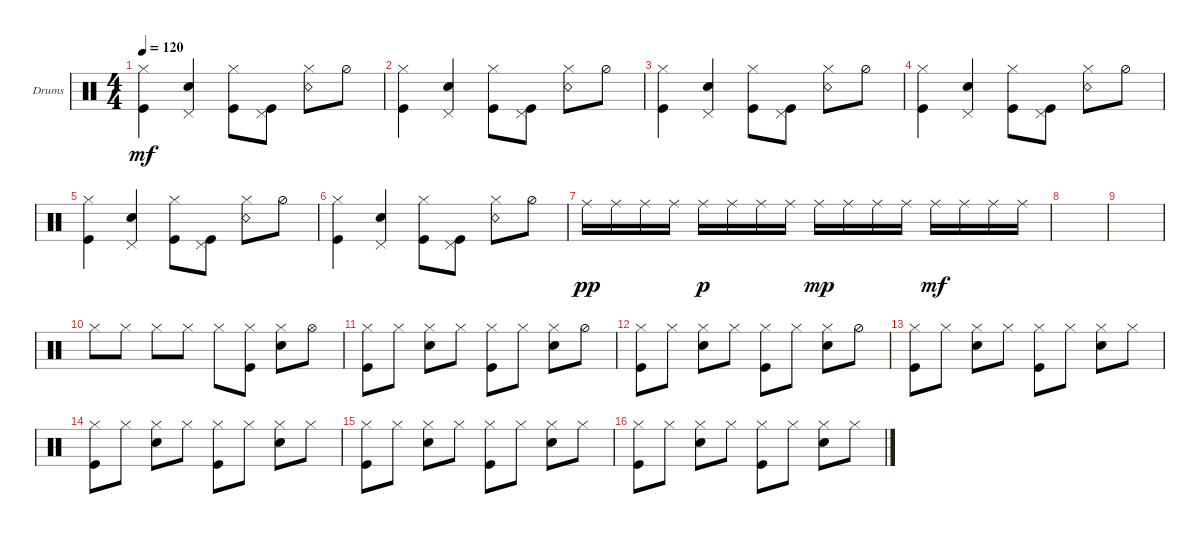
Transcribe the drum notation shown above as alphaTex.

\defaultSystemsLayout 4
\bracketExtendMode groupsimilarinstruments
\firstSystemTrackNameOrientation horizontal
\otherSystemsTrackNameOrientation horizontal
\track ("Drumkit" "Drums") {instrument percussion}
\staff {score}
\articulation defaults
\ts (4 4)
\tempo 120
\clef neutral
\ks c
("Kick (hit)" "Hi-Hat (closed)").4{dy mf} ("Snare (hit) 2" "Pedal Hi-Hat (hit)").4 ("Kick (hit)" "Hi-Hat (closed)").8 ("Pedal Hi-Hat (hit)" "Kick (hit)").8 ("Hi-Hat (closed)" "Snare (rim shot)").8 "Hi-Hat (half)".8 |
("Kick (hit)" "Hi-Hat (closed)").4 ("Snare (hit) 2" "Pedal Hi-Hat (hit)").4 ("Kick (hit)" "Hi-Hat (closed)").8 ("Pedal Hi-Hat (hit)" "Kick (hit)").8 ("Hi-Hat (closed)" "Snare (rim shot)").8 "Hi-Hat (half)".8 |
("Kick (hit)" "Hi-Hat (closed)").4 ("Snare (hit) 2" "Pedal Hi-Hat (hit)").4 ("Kick (hit)" "Hi-Hat (closed)").8 ("Pedal Hi-Hat (hit)" "Kick (hit)").8 ("Hi-Hat (closed)" "Snare (rim shot)").8 "Hi-Hat (half)".8 |
("Kick (hit)" "Hi-Hat (closed)").4 ("Snare (hit) 2" "Pedal Hi-Hat (hit)").4 ("Kick (hit)" "Hi-Hat (closed)").8 ("Pedal Hi-Hat (hit)" "Kick (hit)").8 ("Hi-Hat (closed)" "Snare (rim shot)").8 "Hi-Hat (half)".8 |
("Kick (hit)" "Hi-Hat (closed)").4 ("Snare (hit) 2" "Pedal Hi-Hat (hit)").4 ("Kick (hit)" "Hi-Hat (closed)").8 ("Pedal Hi-Hat (hit)" "Kick (hit)").8 ("Hi-Hat (closed)" "Snare (rim shot)").8 "Hi-Hat (half)".8 |
("Kick (hit)" "Hi-Hat (closed)").4 ("Snare (hit) 2" "Pedal Hi-Hat (hit)").4 ("Kick (hit)" "Hi-Hat (closed)").8 ("Pedal Hi-Hat (hit)" "Kick (hit)").8 ("Hi-Hat (closed)" "Snare (rim shot)").8 "Hi-Hat (half)".8 |
"Ride (middle)".16{dy pp} "Ride (middle)".16 "Ride (middle)".16 "Ride (middle)".16 "Ride (middle)".16{dy p} "Ride (middle)".16 "Ride (middle)".16 "Ride (middle)".16 "Ride (middle)".16{dy mp} "Ride (middle)".16 "Ride (middle)".16 "Ride (middle)".16 "Ride (middle)".16{dy mf} "Ride (middle)".16 "Ride (middle)".16 "Ride (middle)".16 |
|
|
"Hi-Hat (closed)".8 "Hi-Hat (closed)".8 "Hi-Hat (closed)".8 "Hi-Hat (closed)".8 "Hi-Hat (closed)".8 ("Hi-Hat (closed)" "Kick (hit)").8 ("Hi-Hat (closed)" "Snare (hit) 2").8 "Hi-Hat (open)".8 |
("Kick (hit)" "Hi-Hat (closed)").8 "Hi-Hat (closed)".8 ("Hi-Hat (closed)" "Snare (hit) 2").8 "Hi-Hat (closed)".8 ("Hi-Hat (closed)" "Kick (hit)").8 "Hi-Hat (closed)".8 ("Hi-Hat (closed)" "Snare (hit) 2").8 "Hi-Hat (half)".8 |
("Kick (hit)" "Hi-Hat (closed)").8 "Hi-Hat (closed)".8 ("Hi-Hat (closed)" "Snare (hit) 2").8 "Hi-Hat (closed)".8 ("Hi-Hat (closed)" "Kick (hit)").8 "Hi-Hat (closed)".8 ("Hi-Hat (closed)" "Snare (hit) 2").8 "Hi-Hat (half)".8 |
("Kick (hit)" "Hi-Hat (closed)").8 "Hi-Hat (closed)".8 ("Hi-Hat (closed)" "Snare (hit) 2").8 "Hi-Hat (closed)".8 ("Hi-Hat (closed)" "Kick (hit)").8 "Hi-Hat (closed)".8 ("Hi-Hat (closed)" "Snare (hit) 2").8 "Hi-Hat (closed)".8 |
("Kick (hit)" "Hi-Hat (closed)").8 "Hi-Hat (closed)".8 ("Hi-Hat (closed)" "Snare (hit) 2").8 "Hi-Hat (closed)".8 ("Hi-Hat (closed)" "Kick (hit)").8 "Hi-Hat (closed)".8 ("Hi-Hat (closed)" "Snare (hit) 2").8 "Hi-Hat (closed)".8 |
("Kick (hit)" "Hi-Hat (closed)").8 "Hi-Hat (closed)".8 ("Hi-Hat (closed)" "Snare (hit) 2").8 "Hi-Hat (closed)".8 ("Hi-Hat (closed)" "Kick (hit)").8 "Hi-Hat (closed)".8 ("Hi-Hat (closed)" "Snare (hit) 2").8 "Hi-Hat (closed)".8 |
("Kick (hit)" "Hi-Hat (closed)").8 "Hi-Hat (closed)".8 ("Hi-Hat (closed)" "Snare (hit) 2").8 "Hi-Hat (closed)".8 ("Hi-Hat (closed)" "Kick (hit)").8 "Hi-Hat (closed)".8 ("Hi-Hat (closed)" "Snare (hit) 2").8 "Hi-Hat (closed)".8
